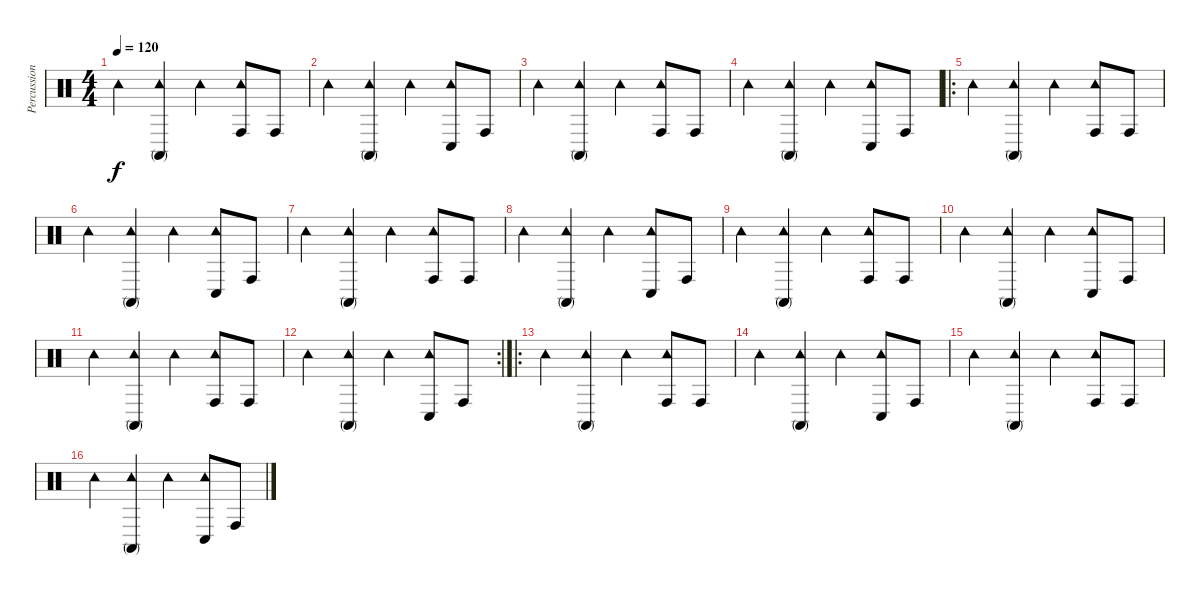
\track ("Percussion" "Percussion") {instrument percussion}
\staff {score}
\articulation defaults
\ts (4 4)
\tempo 120
\clef neutral
\ks c "Tambourine (hit)".4{dy f}
("Conga high (mute)" "Tambourine (hit)").4 "Tambourine (hit)".4 ("Conga high (hit)" "Tambourine (hit)").8 "Conga high (hit)".8 |
"Tambourine (hit)".4 ("Conga high (mute)" "Tambourine (hit)").4 "Tambourine (hit)".4 ("Conga low (hit)" "Tambourine (hit)").8 "Conga high (hit)".8 |
"Tambourine (hit)".4 ("Conga high (mute)" "Tambourine (hit)").4 "Tambourine (hit)".4 ("Conga high (hit)" "Tambourine (hit)").8 "Conga high (hit)".8 |
"Tambourine (hit)".4 ("Conga high (mute)" "Tambourine (hit)").4 "Tambourine (hit)".4 ("Conga low (hit)" "Tambourine (hit)").8 "Conga high (hit)".8 |
\ro "Tambourine (hit)".4
("Conga high (mute)" "Tambourine (hit)").4 "Tambourine (hit)".4 ("Conga high (hit)" "Tambourine (hit)").8 "Conga high (hit)".8 |
"Tambourine (hit)".4 ("Conga high (mute)" "Tambourine (hit)").4 "Tambourine (hit)".4 ("Conga low (hit)" "Tambourine (hit)").8 "Conga high (hit)".8 |
"Tambourine (hit)".4 ("Conga high (mute)" "Tambourine (hit)").4 "Tambourine (hit)".4 ("Conga high (hit)" "Tambourine (hit)").8 "Conga high (hit)".8 |
"Tambourine (hit)".4 ("Conga high (mute)" "Tambourine (hit)").4 "Tambourine (hit)".4 ("Conga low (hit)" "Tambourine (hit)").8 "Conga high (hit)".8 |
"Tambourine (hit)".4 ("Conga high (mute)" "Tambourine (hit)").4 "Tambourine (hit)".4 ("Conga high (hit)" "Tambourine (hit)").8 "Conga high (hit)".8 |
"Tambourine (hit)".4 ("Conga high (mute)" "Tambourine (hit)").4 "Tambourine (hit)".4 ("Conga low (hit)" "Tambourine (hit)").8 "Conga high (hit)".8 |
"Tambourine (hit)".4 ("Conga high (mute)" "Tambourine (hit)").4 "Tambourine (hit)".4 ("Conga high (hit)" "Tambourine (hit)").8 "Conga high (hit)".8 |
\rc 2 "Tambourine (hit)".4
("Conga high (mute)" "Tambourine (hit)").4 "Tambourine (hit)".4 ("Conga low (hit)" "Tambourine (hit)").8 "Conga high (hit)".8 |
\ro "Tambourine (hit)".4
("Conga high (mute)" "Tambourine (hit)").4 "Tambourine (hit)".4 ("Conga high (hit)" "Tambourine (hit)").8 "Conga high (hit)".8 |
"Tambourine (hit)".4 ("Conga high (mute)" "Tambourine (hit)").4 "Tambourine (hit)".4 ("Conga low (hit)" "Tambourine (hit)").8 "Conga high (hit)".8 |
"Tambourine (hit)".4 ("Conga high (mute)" "Tambourine (hit)").4 "Tambourine (hit)".4 ("Conga high (hit)" "Tambourine (hit)").8 "Conga high (hit)".8 |
"Tambourine (hit)".4 ("Conga high (mute)" "Tambourine (hit)").4 "Tambourine (hit)".4 ("Conga low (hit)" "Tambourine (hit)").8 "Conga high (hit)".8
